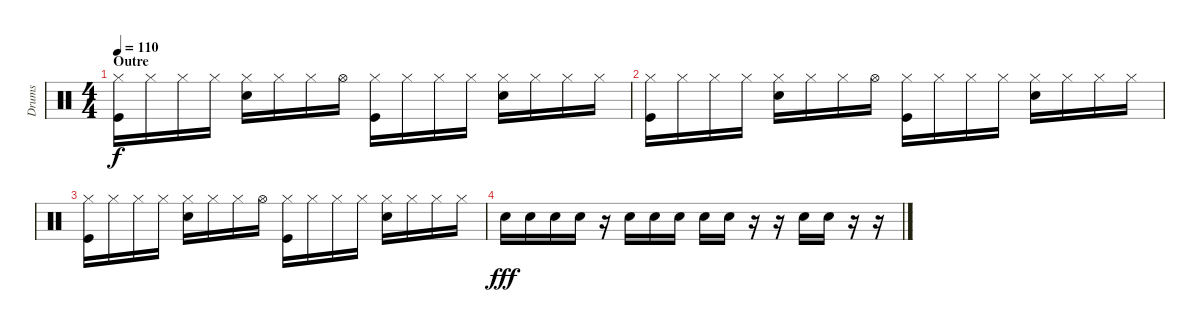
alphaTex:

\track ("Drums" "Drums") {instrument percussion}
\staff {score}
\articulation defaults
\ts (4 4)
\section ("" "Outre")
\tempo 110
\clef neutral
\ks c
("Hi-Hat (closed)" "Kick (hit)").16{dy f} "Hi-Hat (closed)".16 "Hi-Hat (closed)".16 "Hi-Hat (closed)".16 ("Hi-Hat (closed)" "Snare (hit) 2").16 "Hi-Hat (closed)".16 "Hi-Hat (closed)".16 "Hi-Hat (open)".16 ("Hi-Hat (closed)" "Kick (hit)").16 "Hi-Hat (closed)".16 "Hi-Hat (closed)".16 "Hi-Hat (closed)".16 ("Hi-Hat (closed)" "Snare (hit) 2").16 "Hi-Hat (closed)".16 "Hi-Hat (closed)".16 "Hi-Hat (closed)".16 |
("Hi-Hat (closed)" "Kick (hit)").16 "Hi-Hat (closed)".16 "Hi-Hat (closed)".16 "Hi-Hat (closed)".16 ("Hi-Hat (closed)" "Snare (hit) 2").16 "Hi-Hat (closed)".16 "Hi-Hat (closed)".16 "Hi-Hat (open)".16 ("Hi-Hat (closed)" "Kick (hit)").16 "Hi-Hat (closed)".16 "Hi-Hat (closed)".16 "Hi-Hat (closed)".16 ("Hi-Hat (closed)" "Snare (hit) 2").16 "Hi-Hat (closed)".16 "Hi-Hat (closed)".16 "Hi-Hat (closed)".16 |
("Hi-Hat (closed)" "Kick (hit)").16 "Hi-Hat (closed)".16 "Hi-Hat (closed)".16 "Hi-Hat (closed)".16 ("Hi-Hat (closed)" "Snare (hit) 2").16 "Hi-Hat (closed)".16 "Hi-Hat (closed)".16 "Hi-Hat (open)".16 ("Hi-Hat (closed)" "Kick (hit)").16 "Hi-Hat (closed)".16 "Hi-Hat (closed)".16 "Hi-Hat (closed)".16 ("Hi-Hat (closed)" "Snare (hit) 2").16 "Hi-Hat (closed)".16 "Hi-Hat (closed)".16 "Hi-Hat (closed)".16 |
"Snare (hit) 2".16{dy fff} "Snare (hit) 2".16 "Snare (hit) 2".16 "Snare (hit) 2".16 r.16 "Snare (hit) 2".16 "Snare (hit) 2".16 "Snare (hit) 2".16 "Snare (hit) 2".16 "Snare (hit) 2".16 r.16 r.16 "Snare (hit) 2".16 "Snare (hit) 2".16 r.16 r.16
